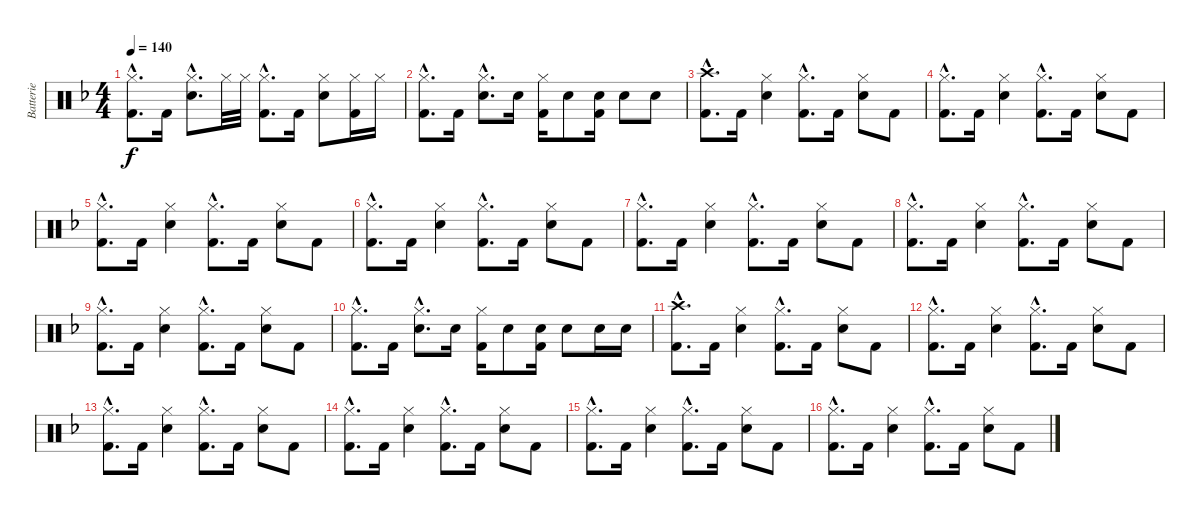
\track ("Batterie" "Batterie") {instrument percussion}
\staff {score}
\articulation defaults
\ts (4 4)
\tempo 140
\clef neutral
\ks f
("Hi-Hat (closed)"{hac} "Kick (hit) 2"{hac}).8{d dy f} "Kick (hit) 2".16 ("Hi-Hat (closed)"{hac} "Snare (hit) 2"{hac}).8{d} "Hi-Hat (closed)".32 "Hi-Hat (closed)".32 ("Hi-Hat (closed)"{hac} "Kick (hit) 2"{hac}).8{d} "Kick (hit) 2".16 ("Hi-Hat (closed)" "Snare (hit) 2").8 ("Hi-Hat (closed)" "Kick (hit) 2").16 "Hi-Hat (closed)".16 |
("Hi-Hat (closed)"{hac} "Kick (hit) 2"{hac}).8{d} "Kick (hit) 2".16 ("Hi-Hat (closed)"{hac} "Snare (hit) 2"{hac}).8{d} "Snare (hit) 2".16 ("Hi-Hat (closed)" "Kick (hit) 2").16 "Snare (hit) 2".8 ("Snare (hit) 2" "Kick (hit) 2").16 "Snare (hit) 2".8 "Snare (hit) 2".8 |
("Crash high (hit)"{hac} "Kick (hit) 2"{hac}).8{d} "Kick (hit) 2".16 ("Hi-Hat (closed)" "Snare (hit) 2").4 ("Hi-Hat (closed)"{hac} "Kick (hit) 2"{hac}).8{d} "Kick (hit) 2".16 ("Hi-Hat (closed)" "Snare (hit) 2").8 "Kick (hit) 2".8 |
("Hi-Hat (closed)"{hac} "Kick (hit) 2"{hac}).8{d} "Kick (hit) 2".16 ("Hi-Hat (closed)" "Snare (hit) 2").4 ("Hi-Hat (closed)"{hac} "Kick (hit) 2"{hac}).8{d} "Kick (hit) 2".16 ("Hi-Hat (closed)" "Snare (hit) 2").8 "Kick (hit) 2".8 |
("Hi-Hat (closed)"{hac} "Kick (hit) 2"{hac}).8{d} "Kick (hit) 2".16 ("Hi-Hat (closed)" "Snare (hit) 2").4 ("Hi-Hat (closed)"{hac} "Kick (hit) 2"{hac}).8{d} "Kick (hit) 2".16 ("Hi-Hat (closed)" "Snare (hit) 2").8 "Kick (hit) 2".8 |
("Hi-Hat (closed)"{hac} "Kick (hit) 2"{hac}).8{d} "Kick (hit) 2".16 ("Hi-Hat (closed)" "Snare (hit) 2").4 ("Hi-Hat (closed)"{hac} "Kick (hit) 2"{hac}).8{d} "Kick (hit) 2".16 ("Hi-Hat (closed)" "Snare (hit) 2").8 "Kick (hit) 2".8 |
("Hi-Hat (closed)"{hac} "Kick (hit) 2"{hac}).8{d} "Kick (hit) 2".16 ("Hi-Hat (closed)" "Snare (hit) 2").4 ("Hi-Hat (closed)"{hac} "Kick (hit) 2"{hac}).8{d} "Kick (hit) 2".16 ("Hi-Hat (closed)" "Snare (hit) 2").8 "Kick (hit) 2".8 |
("Hi-Hat (closed)"{hac} "Kick (hit) 2"{hac}).8{d} "Kick (hit) 2".16 ("Hi-Hat (closed)" "Snare (hit) 2").4 ("Hi-Hat (closed)"{hac} "Kick (hit) 2"{hac}).8{d} "Kick (hit) 2".16 ("Hi-Hat (closed)" "Snare (hit) 2").8 "Kick (hit) 2".8 |
("Hi-Hat (closed)"{hac} "Kick (hit) 2"{hac}).8{d} "Kick (hit) 2".16 ("Hi-Hat (closed)" "Snare (hit) 2").4 ("Hi-Hat (closed)"{hac} "Kick (hit) 2"{hac}).8{d} "Kick (hit) 2".16 ("Hi-Hat (closed)" "Snare (hit) 2").8 "Kick (hit) 2".8 |
("Hi-Hat (closed)"{hac} "Kick (hit) 2"{hac}).8{d} "Kick (hit) 2".16 ("Hi-Hat (closed)"{hac} "Snare (hit) 2"{hac}).8{d} "Snare (hit) 2".16 ("Hi-Hat (closed)" "Kick (hit) 2").16 "Snare (hit) 2".8 ("Snare (hit) 2" "Kick (hit) 2").16 "Snare (hit) 2".8 "Snare (hit) 2".16 "Snare (hit) 2".16 |
("Crash high (hit)"{hac} "Kick (hit) 2"{hac}).8{d} "Kick (hit) 2".16 ("Hi-Hat (closed)" "Snare (hit) 2").4 ("Hi-Hat (closed)"{hac} "Kick (hit) 2"{hac}).8{d} "Kick (hit) 2".16 ("Hi-Hat (closed)" "Snare (hit) 2").8 "Kick (hit) 2".8 |
("Hi-Hat (closed)"{hac} "Kick (hit) 2"{hac}).8{d} "Kick (hit) 2".16 ("Hi-Hat (closed)" "Snare (hit) 2").4 ("Hi-Hat (closed)"{hac} "Kick (hit) 2"{hac}).8{d} "Kick (hit) 2".16 ("Hi-Hat (closed)" "Snare (hit) 2").8 "Kick (hit) 2".8 |
("Hi-Hat (closed)"{hac} "Kick (hit) 2"{hac}).8{d} "Kick (hit) 2".16 ("Hi-Hat (closed)" "Snare (hit) 2").4 ("Hi-Hat (closed)"{hac} "Kick (hit) 2"{hac}).8{d} "Kick (hit) 2".16 ("Hi-Hat (closed)" "Snare (hit) 2").8 "Kick (hit) 2".8 |
("Hi-Hat (closed)"{hac} "Kick (hit) 2"{hac}).8{d} "Kick (hit) 2".16 ("Hi-Hat (closed)" "Snare (hit) 2").4 ("Hi-Hat (closed)"{hac} "Kick (hit) 2"{hac}).8{d} "Kick (hit) 2".16 ("Hi-Hat (closed)" "Snare (hit) 2").8 "Kick (hit) 2".8 |
("Hi-Hat (closed)"{hac} "Kick (hit) 2"{hac}).8{d} "Kick (hit) 2".16 ("Hi-Hat (closed)" "Snare (hit) 2").4 ("Hi-Hat (closed)"{hac} "Kick (hit) 2"{hac}).8{d} "Kick (hit) 2".16 ("Hi-Hat (closed)" "Snare (hit) 2").8 "Kick (hit) 2".8 |
("Hi-Hat (closed)"{hac} "Kick (hit) 2"{hac}).8{d} "Kick (hit) 2".16 ("Hi-Hat (closed)" "Snare (hit) 2").4 ("Hi-Hat (closed)"{hac} "Kick (hit) 2"{hac}).8{d} "Kick (hit) 2".16 ("Hi-Hat (closed)" "Snare (hit) 2").8 "Kick (hit) 2".8
